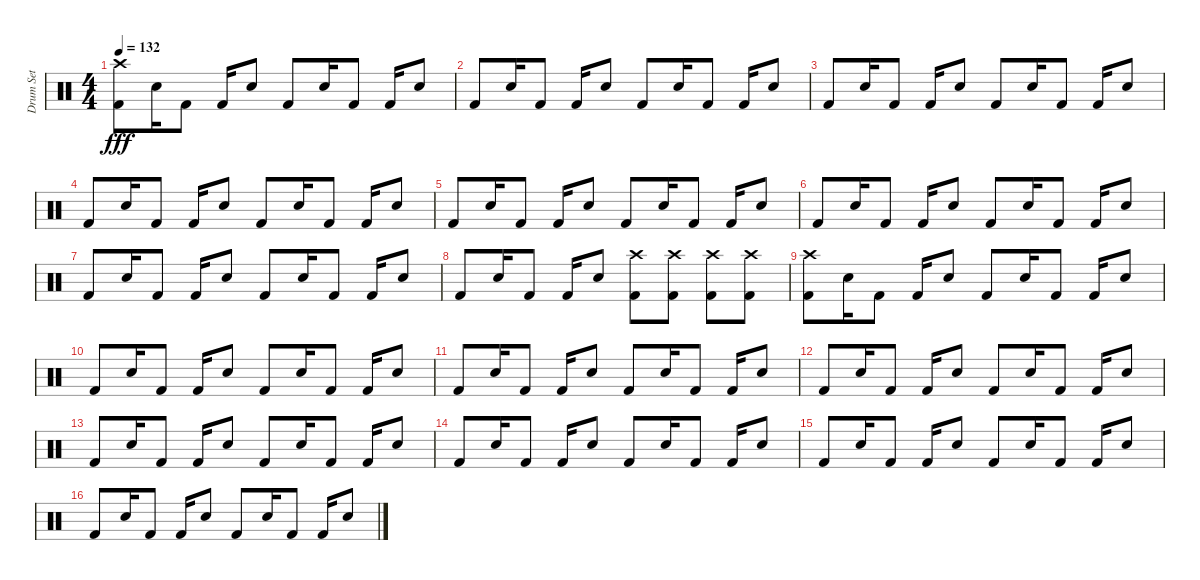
\track ("Drum Set" "Drum Set") {instrument percussion}
\staff {score}
\articulation defaults
\ts (4 4)
\tempo 132
\clef neutral
\ks c
("Kick (hit) 2" "Crash high (hit)").8{dy fff} "Electric Snare (hit)".16 "Kick (hit) 2".8 "Kick (hit) 2".16 "Electric Snare (hit)".8 "Kick (hit) 2".8 "Electric Snare (hit)".16 "Kick (hit) 2".8 "Kick (hit) 2".16 "Electric Snare (hit)".8 |
"Kick (hit) 2".8 "Electric Snare (hit)".16 "Kick (hit) 2".8 "Kick (hit) 2".16 "Electric Snare (hit)".8 "Kick (hit) 2".8 "Electric Snare (hit)".16 "Kick (hit) 2".8 "Kick (hit) 2".16 "Electric Snare (hit)".8 |
"Kick (hit) 2".8 "Electric Snare (hit)".16 "Kick (hit) 2".8 "Kick (hit) 2".16 "Electric Snare (hit)".8 "Kick (hit) 2".8 "Electric Snare (hit)".16 "Kick (hit) 2".8 "Kick (hit) 2".16 "Electric Snare (hit)".8 |
"Kick (hit) 2".8 "Electric Snare (hit)".16 "Kick (hit) 2".8 "Kick (hit) 2".16 "Electric Snare (hit)".8 "Kick (hit) 2".8 "Electric Snare (hit)".16 "Kick (hit) 2".8 "Kick (hit) 2".16 "Electric Snare (hit)".8 |
"Kick (hit) 2".8 "Electric Snare (hit)".16 "Kick (hit) 2".8 "Kick (hit) 2".16 "Electric Snare (hit)".8 "Kick (hit) 2".8 "Electric Snare (hit)".16 "Kick (hit) 2".8 "Kick (hit) 2".16 "Electric Snare (hit)".8 |
"Kick (hit) 2".8 "Electric Snare (hit)".16 "Kick (hit) 2".8 "Kick (hit) 2".16 "Electric Snare (hit)".8 "Kick (hit) 2".8 "Electric Snare (hit)".16 "Kick (hit) 2".8 "Kick (hit) 2".16 "Electric Snare (hit)".8 |
"Kick (hit) 2".8 "Electric Snare (hit)".16 "Kick (hit) 2".8 "Kick (hit) 2".16 "Electric Snare (hit)".8 "Kick (hit) 2".8 "Electric Snare (hit)".16 "Kick (hit) 2".8 "Kick (hit) 2".16 "Electric Snare (hit)".8 |
"Kick (hit) 2".8 "Electric Snare (hit)".16 "Kick (hit) 2".8 "Kick (hit) 2".16 "Electric Snare (hit)".8 ("Crash high (hit)" "Kick (hit) 2").8 ("Crash high (hit)" "Kick (hit) 2").8 ("Kick (hit) 2" "Crash high (hit)").8 ("Kick (hit) 2" "Crash high (hit)").8 |
("Kick (hit) 2" "Crash high (hit)").8 "Electric Snare (hit)".16 "Kick (hit) 2".8 "Kick (hit) 2".16 "Electric Snare (hit)".8 "Kick (hit) 2".8 "Electric Snare (hit)".16 "Kick (hit) 2".8 "Kick (hit) 2".16 "Electric Snare (hit)".8 |
"Kick (hit) 2".8 "Electric Snare (hit)".16 "Kick (hit) 2".8 "Kick (hit) 2".16 "Electric Snare (hit)".8 "Kick (hit) 2".8 "Electric Snare (hit)".16 "Kick (hit) 2".8 "Kick (hit) 2".16 "Electric Snare (hit)".8 |
"Kick (hit) 2".8 "Electric Snare (hit)".16 "Kick (hit) 2".8 "Kick (hit) 2".16 "Electric Snare (hit)".8 "Kick (hit) 2".8 "Electric Snare (hit)".16 "Kick (hit) 2".8 "Kick (hit) 2".16 "Electric Snare (hit)".8 |
"Kick (hit) 2".8 "Electric Snare (hit)".16 "Kick (hit) 2".8 "Kick (hit) 2".16 "Electric Snare (hit)".8 "Kick (hit) 2".8 "Electric Snare (hit)".16 "Kick (hit) 2".8 "Kick (hit) 2".16 "Electric Snare (hit)".8 |
"Kick (hit) 2".8 "Electric Snare (hit)".16 "Kick (hit) 2".8 "Kick (hit) 2".16 "Electric Snare (hit)".8 "Kick (hit) 2".8 "Electric Snare (hit)".16 "Kick (hit) 2".8 "Kick (hit) 2".16 "Electric Snare (hit)".8 |
"Kick (hit) 2".8 "Electric Snare (hit)".16 "Kick (hit) 2".8 "Kick (hit) 2".16 "Electric Snare (hit)".8 "Kick (hit) 2".8 "Electric Snare (hit)".16 "Kick (hit) 2".8 "Kick (hit) 2".16 "Electric Snare (hit)".8 |
"Kick (hit) 2".8 "Electric Snare (hit)".16 "Kick (hit) 2".8 "Kick (hit) 2".16 "Electric Snare (hit)".8 "Kick (hit) 2".8 "Electric Snare (hit)".16 "Kick (hit) 2".8 "Kick (hit) 2".16 "Electric Snare (hit)".8 |
"Kick (hit) 2".8 "Electric Snare (hit)".16 "Kick (hit) 2".8 "Kick (hit) 2".16 "Electric Snare (hit)".8 "Kick (hit) 2".8 "Electric Snare (hit)".16 "Kick (hit) 2".8 "Kick (hit) 2".16 "Electric Snare (hit)".8
